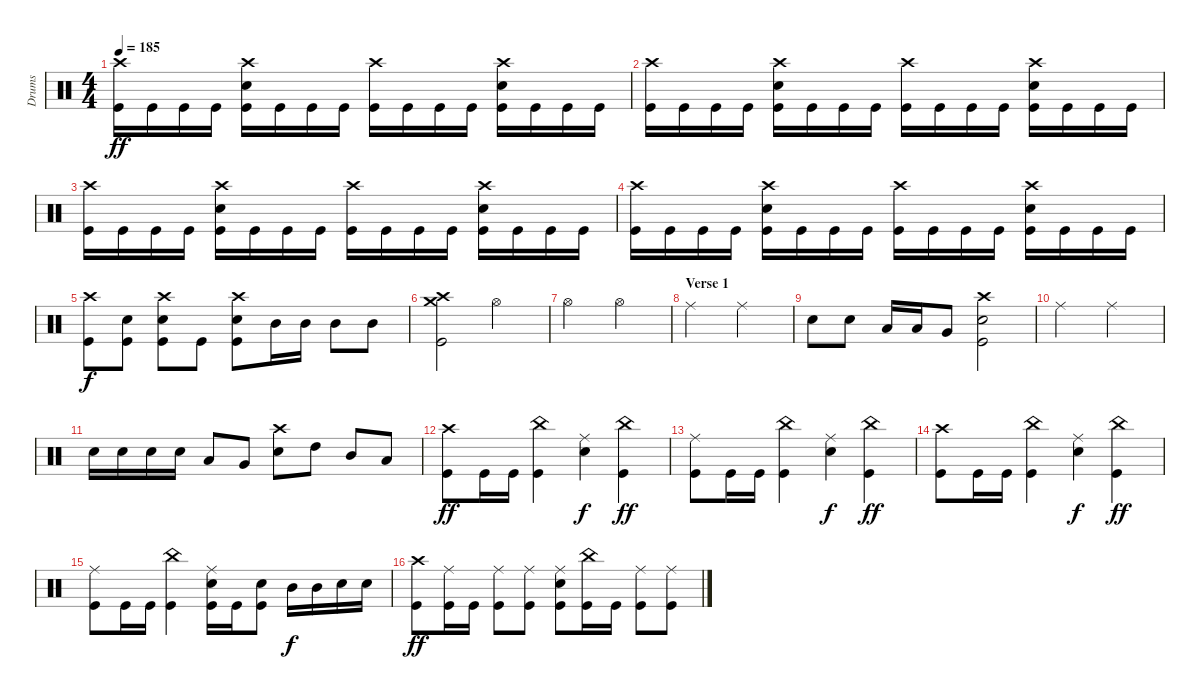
\track ("Drums" "Drums") {instrument percussion}
\staff {score}
\articulation defaults
\ts (4 4)
\tempo 185
\clef neutral
\ks c
("Crash high (hit)" "Kick (hit)").16{dy ff} "Kick (hit)".16 "Kick (hit)".16 "Kick (hit)".16 ("Crash high (hit)" "Snare (hit) 2" "Kick (hit)").16 "Kick (hit)".16 "Kick (hit)".16 "Kick (hit)".16 ("Crash high (hit)" "Kick (hit)").16 "Kick (hit)".16 "Kick (hit)".16 "Kick (hit)".16 ("Crash high (hit)" "Snare (hit) 2" "Kick (hit)").16 "Kick (hit)".16 "Kick (hit)".16 "Kick (hit)".16 |
("Crash high (hit)" "Kick (hit)").16 "Kick (hit)".16 "Kick (hit)".16 "Kick (hit)".16 ("Crash high (hit)" "Snare (hit) 2" "Kick (hit)").16 "Kick (hit)".16 "Kick (hit)".16 "Kick (hit)".16 ("Crash high (hit)" "Kick (hit)").16 "Kick (hit)".16 "Kick (hit)".16 "Kick (hit)".16 ("Crash high (hit)" "Snare (hit) 2" "Kick (hit)").16 "Kick (hit)".16 "Kick (hit)".16 "Kick (hit)".16 |
("Crash high (hit)" "Kick (hit)").16 "Kick (hit)".16 "Kick (hit)".16 "Kick (hit)".16 ("Crash high (hit)" "Snare (hit) 2" "Kick (hit)").16 "Kick (hit)".16 "Kick (hit)".16 "Kick (hit)".16 ("Crash high (hit)" "Kick (hit)").16 "Kick (hit)".16 "Kick (hit)".16 "Kick (hit)".16 ("Crash high (hit)" "Snare (hit) 2" "Kick (hit)").16 "Kick (hit)".16 "Kick (hit)".16 "Kick (hit)".16 |
("Crash high (hit)" "Kick (hit)").16 "Kick (hit)".16 "Kick (hit)".16 "Kick (hit)".16 ("Crash high (hit)" "Snare (hit) 2" "Kick (hit)").16 "Kick (hit)".16 "Kick (hit)".16 "Kick (hit)".16 ("Crash high (hit)" "Kick (hit)").16 "Kick (hit)".16 "Kick (hit)".16 "Kick (hit)".16 ("Crash high (hit)" "Snare (hit) 2" "Kick (hit)").16 "Kick (hit)".16 "Kick (hit)".16 "Kick (hit)".16 |
("Crash high (hit)" "Kick (hit)").8{dy f} ("Snare (hit) 2" "Kick (hit)").8 ("Crash high (hit)" "Snare (hit) 2" "Kick (hit)").8 "Kick (hit)".8 ("Crash high (hit)" "Snare (hit) 2" "Kick (hit)").8 "Mid Tom (hit)".16 "Mid Tom (hit)".16 "Mid Tom (hit)".8 "Mid Tom (hit)".8 |
("Crash medium (hit)" "Crash high (hit)" "Kick (hit)").2 "Hi-Hat (open)".2 |
"Hi-Hat (open)".2 "Hi-Hat (open)".2 |
\section ("" "Verse 1")
"Ride (middle)".2 "Ride (middle)".2 |
"Snare (hit) 2".8 "Snare (hit) 2".8 "Low Tom (hit)".16 "Low Tom (hit)".16 "Very Low Tom (hit)".8 ("Crash high (hit)" "Electric Snare (hit)" "Kick (hit)").2 |
"Ride (middle)".2 "Ride (middle)".2 |
"Snare (hit) 2".16 "Snare (hit) 2".16 "Snare (hit) 2".16 "Snare (hit) 2".16 "Low Tom (hit)".8 "Very Low Tom (hit)".8 ("Crash high (hit)" "Electric Snare (hit)").8 "High Tom (hit)".8 "Mid Tom (hit)".8 "Low Tom (hit)".8 |
("Crash high (hit)" "Kick (hit)").8{dy ff} "Kick (hit)".16 "Kick (hit)".16 ("China (hit)" "Kick (hit)").4 ("Ride (middle)" "Snare (hit) 2").4{dy f} ("China (hit)" "Kick (hit)").4{dy ff} |
("Ride (middle)" "Kick (hit)").8 "Kick (hit)".16 "Kick (hit)".16 ("China (hit)" "Kick (hit)").4 ("Ride (middle)" "Snare (hit) 2").4{dy f} ("China (hit)" "Kick (hit)").4{dy ff} |
("Crash high (hit)" "Kick (hit)").8 "Kick (hit)".16 "Kick (hit)".16 ("China (hit)" "Kick (hit)").4 ("Ride (middle)" "Snare (hit) 2").4{dy f} ("China (hit)" "Kick (hit)").4{dy ff} |
("Ride (middle)" "Kick (hit)").8 "Kick (hit)".16 "Kick (hit)".16 ("China (hit)" "Kick (hit)").4 ("Ride (middle)" "Snare (hit) 2" "Kick (hit)").16 "Kick (hit)".16 ("Snare (hit) 2" "Kick (hit)").8 "Mid Tom (hit)".16{dy f} "Mid Tom (hit)".16 "Electric Snare (hit)".16 "Electric Snare (hit)".16 |
("Crash high (hit)" "Kick (hit)").8{dy ff} ("Ride (middle)" "Kick (hit)").16 "Kick (hit)".16 ("Ride (middle)" "Kick (hit)").8 ("Ride (middle)" "Kick (hit)").8 ("Ride (middle)" "Snare (hit) 2" "Kick (hit)").8 ("China (hit)" "Kick (hit)").16 "Kick (hit)".16 ("Ride (middle)" "Kick (hit)").8 ("Ride (middle)" "Kick (hit)").8
